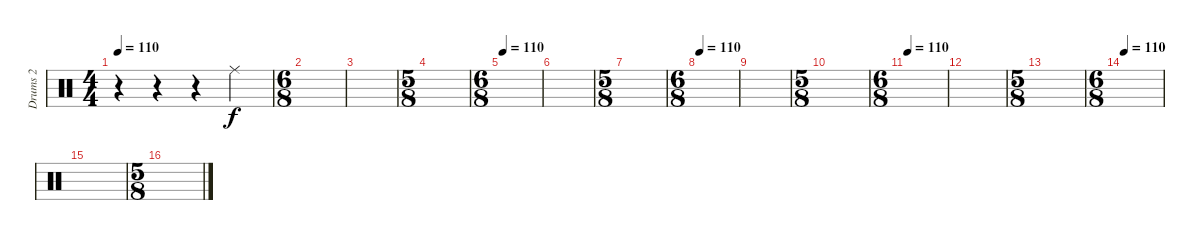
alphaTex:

\track ("Drums 2" "Drums 2") {instrument percussion}
\staff {score}
\articulation defaults
\ts (4 4)
\tempo 110
\clef neutral
\ks c
r.4{dy f} r.4 r.4 "Ride (middle)".4 |
\ts (6 8)
|
|
\ts (5 8)
|
\ts (6 8)
\tempo 110
|
|
\ts (5 8)
|
\ts (6 8)
\tempo 110
|
|
\ts (5 8)
|
\ts (6 8)
\tempo 110
|
|
\ts (5 8)
|
\ts (6 8)
\tempo 110
|
|
\ts (5 8)
